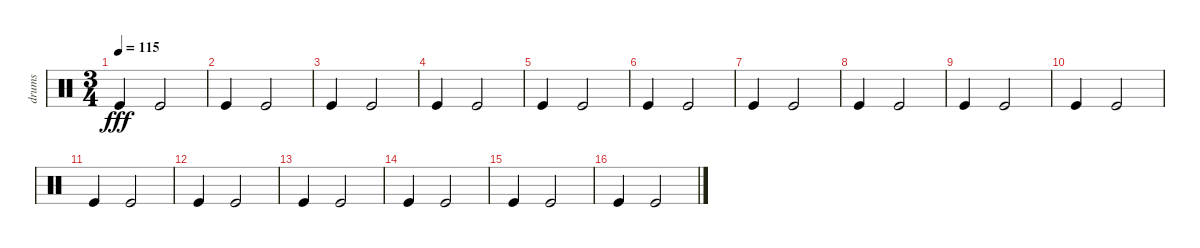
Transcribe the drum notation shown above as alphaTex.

\track ("drums" "drums") {instrument percussion}
\staff {score}
\articulation defaults
\ts (3 4)
\tempo 115
\clef neutral
\ks c "Kick (hit)".4{dy fff} "Kick (hit)".2
|
"Kick (hit)".4 "Kick (hit)".2 |
"Kick (hit)".4 "Kick (hit)".2 |
"Kick (hit)".4 "Kick (hit)".2 |
"Kick (hit)".4 "Kick (hit)".2 |
"Kick (hit)".4 "Kick (hit)".2 |
"Kick (hit)".4 "Kick (hit)".2 |
"Kick (hit)".4 "Kick (hit)".2 |
"Kick (hit)".4 "Kick (hit)".2 |
"Kick (hit)".4 "Kick (hit)".2 |
"Kick (hit)".4 "Kick (hit)".2 |
"Kick (hit)".4 "Kick (hit)".2 |
"Kick (hit)".4 "Kick (hit)".2 |
"Kick (hit)".4 "Kick (hit)".2 |
"Kick (hit)".4 "Kick (hit)".2 |
"Kick (hit)".4 "Kick (hit)".2
